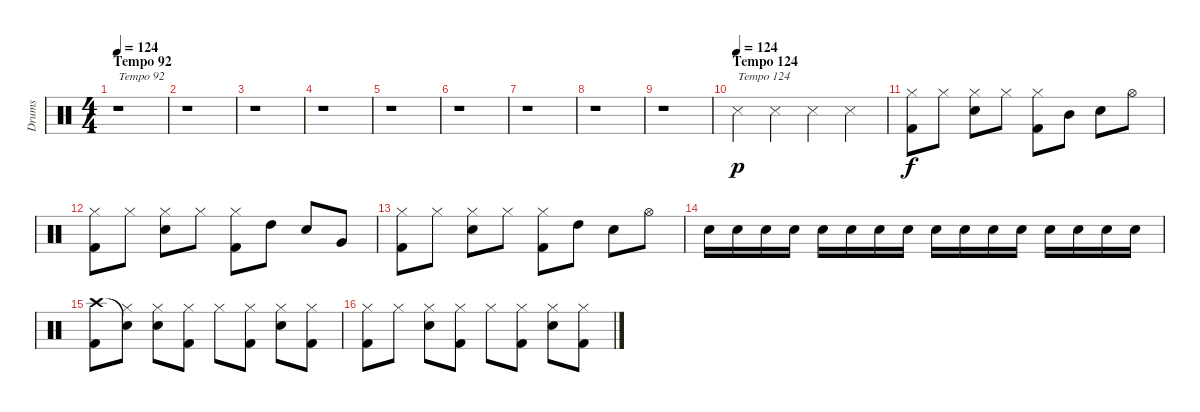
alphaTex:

\track ("Drums" "Drums") {instrument percussion}
\staff {score}
\articulation defaults
\ts (4 4)
\section ("" "Tempo 92")
\tempo 124
\tempo 92
\tempo 124
\clef neutral
\ks c
r.1{txt "Tempo 92" dy p} |
r.1 |
r.1 |
r.1 |
r.1 |
r.1 |
r.1 |
r.1 |
r.1 |
\section ("" "Tempo 124")
\tempo (124)
"Snare (side stick) 3".4{txt "Tempo 124"} "Snare (side stick) 3".4 "Snare (side stick) 3".4 "Snare (side stick) 3".4 |
("Hi-Hat (closed)" "Kick (hit) 2").8{dy f} "Hi-Hat (closed)".8 ("Hi-Hat (closed)" "Snare (hit) 2").8 "Hi-Hat (closed)".8 ("Hi-Hat (closed)" "Kick (hit) 2").8 "Mid Tom (hit)".8 "Snare (hit) 2".8 "Hi-Hat (open)".8 |
("Hi-Hat (closed)" "Kick (hit) 2").8 "Hi-Hat (closed)".8 ("Hi-Hat (closed)" "Snare (hit) 2").8 "Hi-Hat (closed)".8 ("Hi-Hat (closed)" "Kick (hit) 2").8 "High Tom (hit)".8 "Snare (hit) 2".8 "Very Low Tom (hit)".8 |
("Hi-Hat (closed)" "Kick (hit) 2").8 "Hi-Hat (closed)".8 ("Hi-Hat (closed)" "Snare (hit) 2").8 "Hi-Hat (closed)".8 ("Hi-Hat (closed)" "Kick (hit) 2").8 "High Tom (hit)".8 "Snare (hit) 2".8 "Hi-Hat (open)".8 |
"Snare (hit) 2".16 "Snare (hit) 2".16 "Snare (hit) 2".16 "Snare (hit) 2".16 "Snare (hit) 2".16 "Snare (hit) 2".16 "Snare (hit) 2".16 "Snare (hit) 2".16 "Snare (hit) 2".16 "Snare (hit) 2".16 "Snare (hit) 2".16 "Snare (hit) 2".16 "Snare (hit) 2".16 "Snare (hit) 2".16 "Snare (hit) 2".16 "Snare (hit) 2".16 |
("Crash high (hit)" "Kick (hit) 2").8 ("Snare (hit)"{t} "Hi-Hat (closed)").8 ("Hi-Hat (closed)" "Snare (hit) 2").8 ("Hi-Hat (closed)" "Kick (hit) 2").8 "Hi-Hat (closed)".8 ("Hi-Hat (closed)" "Kick (hit) 2").8 ("Hi-Hat (closed)" "Snare (hit) 2").8 ("Hi-Hat (closed)" "Kick (hit) 2").8 |
("Hi-Hat (closed)" "Kick (hit) 2").8 "Hi-Hat (closed)".8 ("Hi-Hat (closed)" "Snare (hit) 2").8 ("Hi-Hat (closed)" "Kick (hit) 2").8 "Hi-Hat (closed)".8 ("Hi-Hat (closed)" "Kick (hit) 2").8 ("Hi-Hat (closed)" "Snare (hit) 2").8 ("Hi-Hat (closed)" "Kick (hit) 2").8
